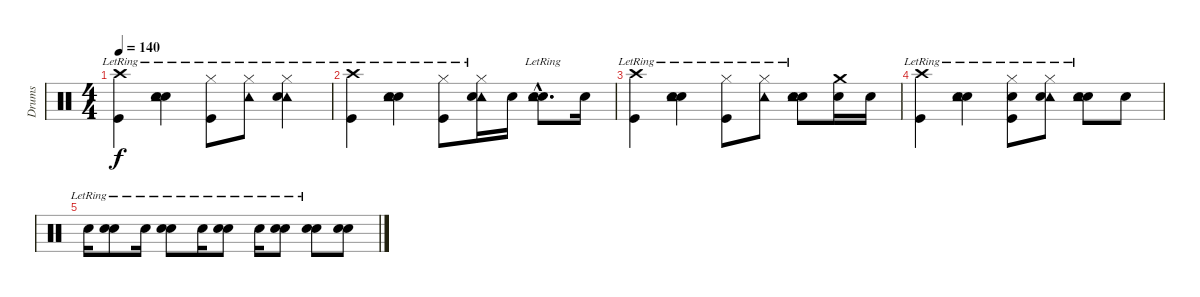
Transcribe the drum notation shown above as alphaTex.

\track ("Drums" "Drums") {instrument percussion}
\staff {score}
\articulation defaults
\ts (4 4)
\tempo 140
\clef neutral
\ks c
("Crash high (hit)"{lr} "Kick (hit)"{lr}).4{dy f} ("Electric Snare (hit)"{lr} "Tambourine (hit)"{lr} "Snare (hit) 2"{lr}).4 ("Hi-Hat (closed)"{lr} "Kick (hit)"{lr}).8 ("Hi-Hat (closed)"{lr} "Tambourine (hit)").8 ("Hi-Hat (closed)"{lr} "Tambourine (hit)"{lr} "Snare (hit) 2"{lr}).4 |
("Crash high (hit)"{lr} "Kick (hit)"{lr}).4 ("Electric Snare (hit)"{lr} "Tambourine (hit)"{lr} "Snare (hit) 2"{lr}).4 ("Hi-Hat (closed)"{lr} "Kick (hit)"{lr}).8 ("Hi-Hat (closed)"{lr} "Tambourine (hit)" "Snare (hit) 2").16 "Snare (hit) 2".16 ("Electric Snare (hit)"{hac lr} "Tambourine (hit)"{hac lr} "Snare (hit) 2"{hac lr}).8{d} "Snare (hit) 2".16 |
("Crash high (hit)" "Kick (hit)"{lr}).4 ("Electric Snare (hit)"{lr} "Tambourine (hit)"{lr} "Snare (hit) 2"{lr}).4 ("Hi-Hat (closed)"{lr} "Kick (hit)"{lr}).8 ("Hi-Hat (closed)"{lr} "Tambourine (hit)").8 ("Electric Snare (hit)"{lr} "Tambourine (hit)"{lr} "Snare (hit) 2"{lr}).8 ("Crash medium (hit)" "Snare (hit) 2").16 "Snare (hit) 2".16 |
("Crash high (hit)"{lr} "Kick (hit)"{lr}).4 ("Electric Snare (hit)"{lr} "Tambourine (hit)"{lr} "Snare (hit) 2"{lr}).4 ("Hi-Hat (closed)"{lr} "Kick (hit)"{lr} "Snare (hit) 2").8 ("Hi-Hat (closed)"{lr} "Tambourine (hit)" "Snare (hit) 2").8 ("Electric Snare (hit)"{lr} "Tambourine (hit)"{lr} "Snare (hit) 2").8 "Snare (hit) 2".8 |
"Snare (hit) 2"{lr}.16 ("Snare (hit) 2"{lr} "Electric Snare (hit)"{lr}).8 "Snare (hit) 2"{lr}.16 ("Snare (hit) 2"{lr} "Electric Snare (hit)"{lr}).8 "Snare (hit) 2"{lr}.16 ("Snare (hit) 2"{lr} "Electric Snare (hit)"{lr}).8 "Snare (hit) 2"{lr}.16 ("Snare (hit) 2"{lr} "Electric Snare (hit)"{lr}).8 ("Snare (hit) 2"{lr} "Electric Snare (hit)"{lr}).8 ("Snare (hit) 2" "Electric Snare (hit)").8
